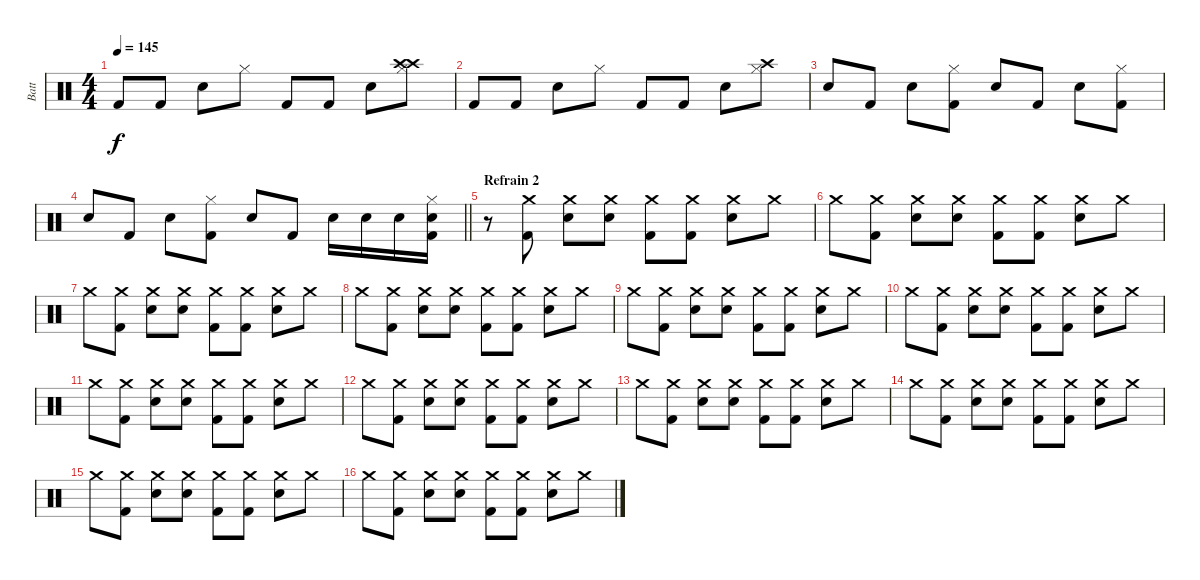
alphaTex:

\track ("Batt" "Batt") {instrument percussion}
\staff {score}
\articulation defaults
\ts (4 4)
\tempo 145
\clef neutral
\ks c "Kick (hit) 2".8{dy f} "Kick (hit) 2".8 "Snare (hit) 2".8 "Hi-Hat (closed)".8 "Kick (hit) 2".8 "Kick (hit) 2".8 "Snare (hit) 2".8
("Crash high (hit)" "Hi-Hat (closed)" "Crash high (hit)").8 |
"Kick (hit) 2".8 "Kick (hit) 2".8 "Snare (hit) 2".8 "Hi-Hat (closed)".8 "Kick (hit) 2".8 "Kick (hit) 2".8 "Snare (hit) 2".8 ("Crash high (hit)" "Hi-Hat (closed)").8 |
"Snare (hit) 2".8 "Kick (hit) 2".8 "Snare (hit) 2".8 ("Hi-Hat (closed)" "Kick (hit) 2").8 "Snare (hit) 2".8 "Kick (hit) 2".8 "Snare (hit) 2".8 ("Hi-Hat (closed)" "Kick (hit) 2").8 |
\barLineRight lightlight "Snare (hit) 2".8 "Kick (hit) 2".8 "Snare (hit) 2".8
("Hi-Hat (closed)" "Kick (hit) 2").8 "Snare (hit) 2".8 "Kick (hit) 2".8 "Snare (hit) 2".16 "Snare (hit) 2".16 "Snare (hit) 2".16 ("Hi-Hat (closed)" "Snare (hit) 2" "Kick (hit) 2").16 |
\section ("" "Refrain 2")
r.8 ("Crash medium (hit)" "Kick (hit) 2").8 ("Crash medium (hit)" "Snare (hit) 2").8 ("Crash medium (hit)" "Snare (hit) 2").8 ("Crash medium (hit)" "Kick (hit) 2").8 ("Crash medium (hit)" "Kick (hit) 2").8 ("Crash medium (hit)" "Snare (hit) 2").8 "Crash medium (hit)".8 |
"Crash medium (hit)".8 ("Crash medium (hit)" "Kick (hit) 2").8 ("Crash medium (hit)" "Snare (hit) 2").8 ("Crash medium (hit)" "Snare (hit) 2").8 ("Crash medium (hit)" "Kick (hit) 2").8 ("Crash medium (hit)" "Kick (hit) 2").8 ("Crash medium (hit)" "Snare (hit) 2").8 "Crash medium (hit)".8 |
"Crash medium (hit)".8 ("Crash medium (hit)" "Kick (hit) 2").8 ("Crash medium (hit)" "Snare (hit) 2").8 ("Crash medium (hit)" "Snare (hit) 2").8 ("Crash medium (hit)" "Kick (hit) 2").8 ("Crash medium (hit)" "Kick (hit) 2").8 ("Crash medium (hit)" "Snare (hit) 2").8 "Crash medium (hit)".8 |
"Crash medium (hit)".8 ("Crash medium (hit)" "Kick (hit) 2").8 ("Crash medium (hit)" "Snare (hit) 2").8 ("Crash medium (hit)" "Snare (hit) 2").8 ("Crash medium (hit)" "Kick (hit) 2").8 ("Crash medium (hit)" "Kick (hit) 2").8 ("Crash medium (hit)" "Snare (hit) 2").8 "Crash medium (hit)".8 |
"Crash medium (hit)".8 ("Crash medium (hit)" "Kick (hit) 2").8 ("Crash medium (hit)" "Snare (hit) 2").8 ("Crash medium (hit)" "Snare (hit) 2").8 ("Crash medium (hit)" "Kick (hit) 2").8 ("Crash medium (hit)" "Kick (hit) 2").8 ("Crash medium (hit)" "Snare (hit) 2").8 "Crash medium (hit)".8 |
"Crash medium (hit)".8 ("Crash medium (hit)" "Kick (hit) 2").8 ("Crash medium (hit)" "Snare (hit) 2").8 ("Crash medium (hit)" "Snare (hit) 2").8 ("Crash medium (hit)" "Kick (hit) 2").8 ("Crash medium (hit)" "Kick (hit) 2").8 ("Crash medium (hit)" "Snare (hit) 2").8 "Crash medium (hit)".8 |
"Crash medium (hit)".8 ("Crash medium (hit)" "Kick (hit) 2").8 ("Crash medium (hit)" "Snare (hit) 2").8 ("Crash medium (hit)" "Snare (hit) 2").8 ("Crash medium (hit)" "Kick (hit) 2").8 ("Crash medium (hit)" "Kick (hit) 2").8 ("Crash medium (hit)" "Snare (hit) 2").8 "Crash medium (hit)".8 |
"Crash medium (hit)".8 ("Crash medium (hit)" "Kick (hit) 2").8 ("Crash medium (hit)" "Snare (hit) 2").8 ("Crash medium (hit)" "Snare (hit) 2").8 ("Crash medium (hit)" "Kick (hit) 2").8 ("Crash medium (hit)" "Kick (hit) 2").8 ("Crash medium (hit)" "Snare (hit) 2").8 "Crash medium (hit)".8 |
"Crash medium (hit)".8 ("Crash medium (hit)" "Kick (hit) 2").8 ("Crash medium (hit)" "Snare (hit) 2").8 ("Crash medium (hit)" "Snare (hit) 2").8 ("Crash medium (hit)" "Kick (hit) 2").8 ("Crash medium (hit)" "Kick (hit) 2").8 ("Crash medium (hit)" "Snare (hit) 2").8 "Crash medium (hit)".8 |
"Crash medium (hit)".8 ("Crash medium (hit)" "Kick (hit) 2").8 ("Crash medium (hit)" "Snare (hit) 2").8 ("Crash medium (hit)" "Snare (hit) 2").8 ("Crash medium (hit)" "Kick (hit) 2").8 ("Crash medium (hit)" "Kick (hit) 2").8 ("Crash medium (hit)" "Snare (hit) 2").8 "Crash medium (hit)".8 |
"Crash medium (hit)".8 ("Crash medium (hit)" "Kick (hit) 2").8 ("Crash medium (hit)" "Snare (hit) 2").8 ("Crash medium (hit)" "Snare (hit) 2").8 ("Crash medium (hit)" "Kick (hit) 2").8 ("Crash medium (hit)" "Kick (hit) 2").8 ("Crash medium (hit)" "Snare (hit) 2").8 "Crash medium (hit)".8 |
"Crash medium (hit)".8 ("Crash medium (hit)" "Kick (hit) 2").8 ("Crash medium (hit)" "Snare (hit) 2").8 ("Crash medium (hit)" "Snare (hit) 2").8 ("Crash medium (hit)" "Kick (hit) 2").8 ("Crash medium (hit)" "Kick (hit) 2").8 ("Crash medium (hit)" "Snare (hit) 2").8 "Crash medium (hit)".8
